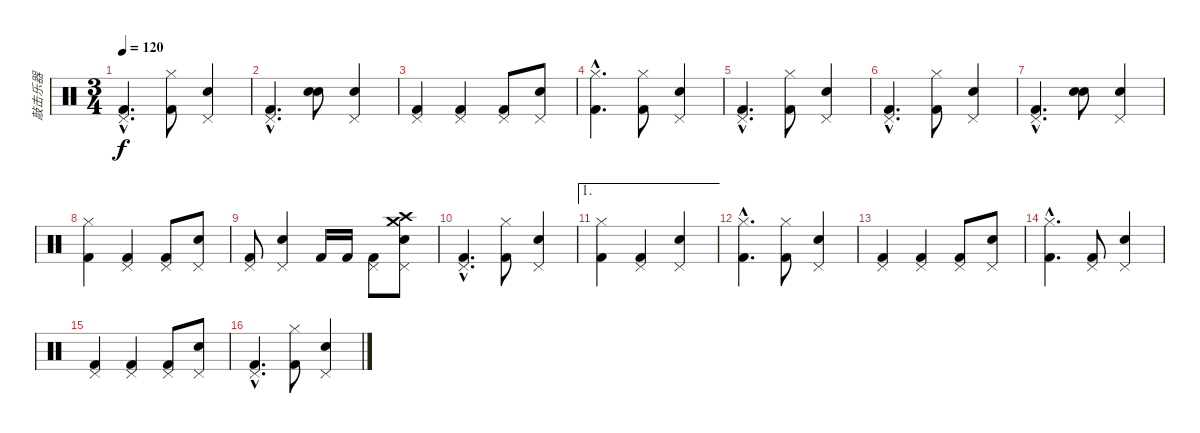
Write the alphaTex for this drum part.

\track ("敲击乐器" "敲击乐器") {instrument percussion}
\staff {score}
\articulation defaults
\ts (3 4)
\tempo 120
\clef neutral
\ks c
("Kick (hit) 2"{hac} "Pedal Hi-Hat (hit)"{hac}).4{d dy f} ("Kick (hit) 2" "Hi-Hat (closed)").8 ("Pedal Hi-Hat (hit)" "Snare (hit) 2").4 |
("Kick (hit) 2"{hac} "Pedal Hi-Hat (hit)"{hac}).4{d} ("Snare (hit) 2" "Electric Snare (hit)").8 ("Snare (hit) 2" "Pedal Hi-Hat (hit)").4 |
("Kick (hit) 2" "Pedal Hi-Hat (hit)").4 ("Kick (hit) 2" "Pedal Hi-Hat (hit)").4 ("Kick (hit) 2" "Pedal Hi-Hat (hit)").8 ("Snare (hit) 2" "Pedal Hi-Hat (hit)").8 |
("Kick (hit) 2"{hac} "Hi-Hat (closed)"{hac}).4{d} ("Kick (hit) 2" "Hi-Hat (closed)").8 ("Pedal Hi-Hat (hit)" "Snare (hit) 2").4 |
("Kick (hit) 2"{hac} "Pedal Hi-Hat (hit)"{hac}).4{d} ("Kick (hit) 2" "Hi-Hat (closed)").8 ("Pedal Hi-Hat (hit)" "Snare (hit) 2").4 |
("Kick (hit) 2"{hac} "Pedal Hi-Hat (hit)"{hac}).4{d} ("Kick (hit) 2" "Hi-Hat (closed)").8 ("Pedal Hi-Hat (hit)" "Snare (hit) 2").4 |
("Kick (hit) 2"{hac} "Pedal Hi-Hat (hit)"{hac}).4{d} ("Snare (hit) 2" "Electric Snare (hit)").8 ("Snare (hit) 2" "Pedal Hi-Hat (hit)").4 |
("Kick (hit) 2" "Hi-Hat (closed)").4 ("Kick (hit) 2" "Pedal Hi-Hat (hit)").4 ("Kick (hit) 2" "Pedal Hi-Hat (hit)").8 ("Snare (hit) 2" "Pedal Hi-Hat (hit)").8 |
("Kick (hit) 2" "Pedal Hi-Hat (hit)").8 ("Pedal Hi-Hat (hit)" "Snare (hit) 2").4 "Kick (hit) 2".16 "Kick (hit) 2".16 ("Pedal Hi-Hat (hit)" "Kick (hit) 2").8 ("Snare (hit) 2" "Crash high (hit)" "Pedal Hi-Hat (hit)" "Crash medium (hit)").8 |
("Kick (hit) 2"{hac} "Pedal Hi-Hat (hit)"{hac}).4{d} ("Kick (hit) 2" "Hi-Hat (closed)").8 ("Pedal Hi-Hat (hit)" "Snare (hit) 2").4 |
\ae 1
("Kick (hit) 2" "Hi-Hat (closed)").4 ("Kick (hit) 2" "Pedal Hi-Hat (hit)").4 ("Snare (hit) 2" "Pedal Hi-Hat (hit)").4 |
("Kick (hit) 2"{hac} "Hi-Hat (closed)"{hac}).4{d} ("Kick (hit) 2" "Hi-Hat (closed)").8 ("Pedal Hi-Hat (hit)" "Snare (hit) 2").4 |
("Kick (hit) 2" "Pedal Hi-Hat (hit)").4 ("Kick (hit) 2" "Pedal Hi-Hat (hit)").4 ("Kick (hit) 2" "Pedal Hi-Hat (hit)").8 ("Snare (hit) 2" "Pedal Hi-Hat (hit)").8 |
("Kick (hit) 2"{hac} "Hi-Hat (closed)"{hac}).4{d} ("Kick (hit) 2" "Pedal Hi-Hat (hit)").8 ("Pedal Hi-Hat (hit)" "Snare (hit) 2").4 |
("Kick (hit) 2" "Pedal Hi-Hat (hit)").4 ("Kick (hit) 2" "Pedal Hi-Hat (hit)").4 ("Kick (hit) 2" "Pedal Hi-Hat (hit)").8 ("Snare (hit) 2" "Pedal Hi-Hat (hit)").8 |
("Kick (hit) 2"{hac} "Pedal Hi-Hat (hit)"{hac}).4{d} ("Kick (hit) 2" "Hi-Hat (closed)").8 ("Pedal Hi-Hat (hit)" "Snare (hit) 2").4
